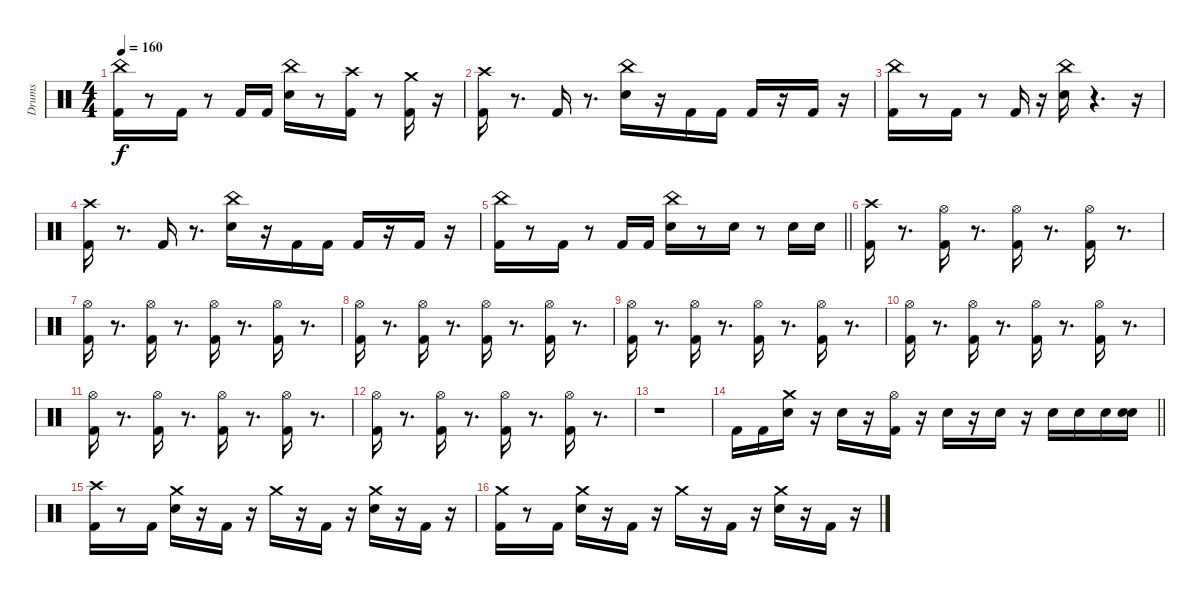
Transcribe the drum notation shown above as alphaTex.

\track ("Drums" "Drums") {instrument percussion}
\staff {score}
\articulation defaults
\ts (4 4)
\tempo 160
\clef neutral
\ks c
("Kick (hit) 2" "China (hit)").16{dy f} r.8 "Kick (hit) 2".16 r.8 "Kick (hit) 2".16 "Kick (hit) 2".16 ("Snare (hit) 2" "China (hit)").16 r.8 ("Kick (hit) 2" "Crash high (hit)").16 r.8 ("Kick (hit) 2" "Crash medium (hit)").16 r.16 |
("Kick (hit) 2" "Crash high (hit)").16 r.8{d} "Kick (hit) 2".16 r.8{d} ("Snare (hit) 2" "China (hit)").16 r.16 "Kick (hit) 2".16 "Kick (hit) 2".16 "Kick (hit) 2".16 r.16 "Kick (hit) 2".16 r.16 |
("Kick (hit) 2" "China (hit)").16 r.8 "Kick (hit) 2".16 r.8 "Kick (hit) 2".16 r.16 ("Snare (hit) 2" "China (hit)").16 r.4{d} r.16 |
("Kick (hit) 2" "Crash high (hit)").16 r.8{d} "Kick (hit) 2".16 r.8{d} ("Snare (hit) 2" "China (hit)").16 r.16 "Kick (hit) 2".16 "Kick (hit) 2".16 "Kick (hit) 2".16 r.16 "Kick (hit) 2".16 r.16 |
\barLineRight lightlight
("Kick (hit) 2" "China (hit)").16 r.8 "Kick (hit) 2".16 r.8 "Kick (hit) 2".16 "Kick (hit) 2".16 ("Snare (hit) 2" "China (hit)").16 r.8 "Snare (hit) 2".16 r.8 "Snare (hit) 2".16 "Snare (hit) 2".16 |
\section ("" " ")
("Kick (hit) 2" "Crash high (hit)").16 r.8{d} ("Kick (hit) 2" "Hi-Hat (open)").16 r.8{d} ("Kick (hit) 2" "Hi-Hat (open)").16 r.8{d} ("Kick (hit) 2" "Hi-Hat (open)").16 r.8{d} |
("Kick (hit) 2" "Hi-Hat (open)").16 r.8{d} ("Kick (hit) 2" "Hi-Hat (open)").16 r.8{d} ("Kick (hit) 2" "Hi-Hat (open)").16 r.8{d} ("Kick (hit) 2" "Hi-Hat (open)").16 r.8{d} |
("Kick (hit) 2" "Hi-Hat (open)").16 r.8{d} ("Kick (hit) 2" "Hi-Hat (open)").16 r.8{d} ("Kick (hit) 2" "Hi-Hat (open)").16 r.8{d} ("Kick (hit) 2" "Hi-Hat (open)").16 r.8{d} |
("Kick (hit) 2" "Hi-Hat (open)").16 r.8{d} ("Kick (hit) 2" "Hi-Hat (open)").16 r.8{d} ("Kick (hit) 2" "Hi-Hat (open)").16 r.8{d} ("Kick (hit) 2" "Hi-Hat (open)").16 r.8{d} |
("Kick (hit) 2" "Hi-Hat (open)").16 r.8{d} ("Kick (hit) 2" "Hi-Hat (open)").16 r.8{d} ("Kick (hit) 2" "Hi-Hat (open)").16 r.8{d} ("Kick (hit) 2" "Hi-Hat (open)").16 r.8{d} |
("Kick (hit) 2" "Hi-Hat (open)").16 r.8{d} ("Kick (hit) 2" "Hi-Hat (open)").16 r.8{d} ("Kick (hit) 2" "Hi-Hat (open)").16 r.8{d} ("Kick (hit) 2" "Hi-Hat (open)").16 r.8{d} |
("Kick (hit) 2" "Hi-Hat (open)").16 r.8{d} ("Kick (hit) 2" "Hi-Hat (open)").16 r.8{d} ("Kick (hit) 2" "Hi-Hat (open)").16 r.8{d} ("Kick (hit) 2" "Hi-Hat (open)").16 r.8{d} |
r.1 |
\barLineRight lightlight "Kick (hit) 2".16 "Kick (hit) 2".16
("Snare (hit) 2" "Crash medium (hit)").16 r.16 "Snare (hit) 2".16 r.16 ("Kick (hit) 2" "Hi-Hat (open)").16 r.16 "Snare (hit) 2".16 r.16 "Snare (hit) 2".16 r.16 "Snare (hit) 2".16 "Snare (hit) 2".16 "Snare (hit) 2".16 ("Snare (hit) 2" "Snare (hit) 2").16 |
\section ("" " ")
("Kick (hit) 2" "Crash high (hit)").16 r.8 "Kick (hit) 2".16 ("Snare (hit) 2" "Crash medium (hit)").16 r.16 "Kick (hit) 2".16 r.16 "Crash medium (hit)".16 r.16 "Kick (hit) 2".16 r.16 ("Snare (hit) 2" "Crash medium (hit)").16 r.16 "Kick (hit) 2".16 r.16 |
("Kick (hit) 2" "Crash medium (hit)").16 r.8 "Kick (hit) 2".16 ("Snare (hit) 2" "Crash medium (hit)").16 r.16 "Kick (hit) 2".16 r.16 "Crash medium (hit)".16 r.16 "Kick (hit) 2".16 r.16 ("Snare (hit) 2" "Crash medium (hit)").16 r.16 "Kick (hit) 2".16 r.16
